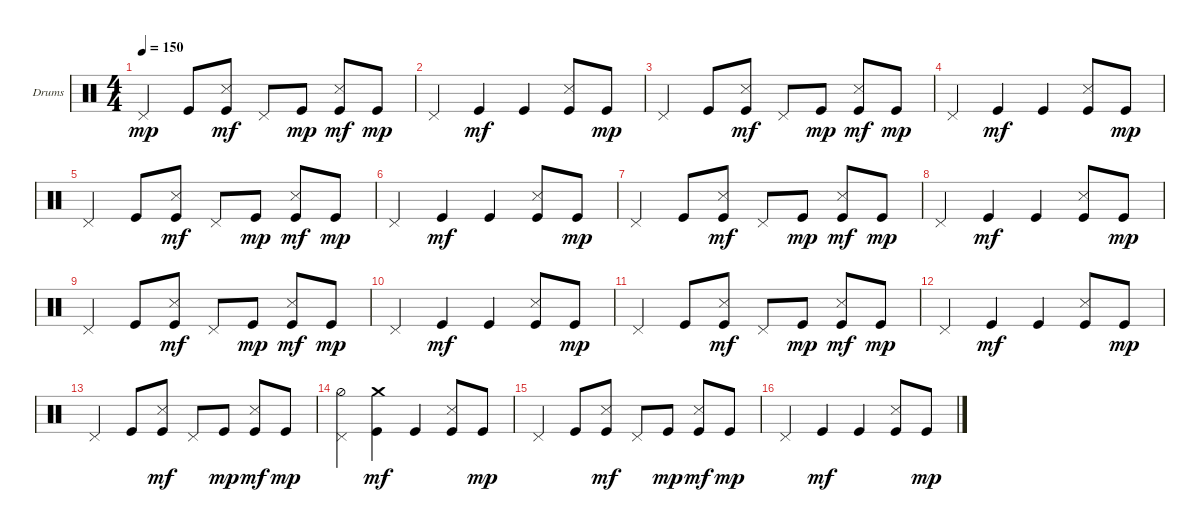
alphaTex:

\defaultSystemsLayout 4
\bracketExtendMode groupsimilarinstruments
\firstSystemTrackNameOrientation horizontal
\otherSystemsTrackNameOrientation horizontal
\track ("Е. Кулаков" "Drums") {instrument percussion}
\staff {score}
\articulation defaults
\ts (4 4)
\tempo 150
\clef neutral
\ks c "Pedal Hi-Hat (hit)".4{dy mp} "Kick (hit)".8
("Kick (hit)" "Snare (side stick) 3").8{dy mf} "Pedal Hi-Hat (hit)".8 "Kick (hit)".8{dy mp} ("Kick (hit)" "Snare (side stick) 3").8{dy mf} "Kick (hit)".8{dy mp} |
"Pedal Hi-Hat (hit)".4 "Kick (hit)".4{dy mf} "Kick (hit)".4 ("Kick (hit)" "Snare (side stick) 3").8 "Kick (hit)".8{dy mp} |
"Pedal Hi-Hat (hit)".4 "Kick (hit)".8 ("Kick (hit)" "Snare (side stick) 3").8{dy mf} "Pedal Hi-Hat (hit)".8 "Kick (hit)".8{dy mp} ("Kick (hit)" "Snare (side stick) 3").8{dy mf} "Kick (hit)".8{dy mp} |
"Pedal Hi-Hat (hit)".4 "Kick (hit)".4{dy mf} "Kick (hit)".4 ("Kick (hit)" "Snare (side stick) 3").8 "Kick (hit)".8{dy mp} |
"Pedal Hi-Hat (hit)".4 "Kick (hit)".8 ("Kick (hit)" "Snare (side stick) 3").8{dy mf} "Pedal Hi-Hat (hit)".8 "Kick (hit)".8{dy mp} ("Kick (hit)" "Snare (side stick) 3").8{dy mf} "Kick (hit)".8{dy mp} |
"Pedal Hi-Hat (hit)".4 "Kick (hit)".4{dy mf} "Kick (hit)".4 ("Kick (hit)" "Snare (side stick) 3").8 "Kick (hit)".8{dy mp} |
"Pedal Hi-Hat (hit)".4 "Kick (hit)".8 ("Kick (hit)" "Snare (side stick) 3").8{dy mf} "Pedal Hi-Hat (hit)".8 "Kick (hit)".8{dy mp} ("Kick (hit)" "Snare (side stick) 3").8{dy mf} "Kick (hit)".8{dy mp} |
"Pedal Hi-Hat (hit)".4 "Kick (hit)".4{dy mf} "Kick (hit)".4 ("Kick (hit)" "Snare (side stick) 3").8 "Kick (hit)".8{dy mp} |
"Pedal Hi-Hat (hit)".4 "Kick (hit)".8 ("Kick (hit)" "Snare (side stick) 3").8{dy mf} "Pedal Hi-Hat (hit)".8 "Kick (hit)".8{dy mp} ("Kick (hit)" "Snare (side stick) 3").8{dy mf} "Kick (hit)".8{dy mp} |
"Pedal Hi-Hat (hit)".4 "Kick (hit)".4{dy mf} "Kick (hit)".4 ("Kick (hit)" "Snare (side stick) 3").8 "Kick (hit)".8{dy mp} |
"Pedal Hi-Hat (hit)".4 "Kick (hit)".8 ("Kick (hit)" "Snare (side stick) 3").8{dy mf} "Pedal Hi-Hat (hit)".8 "Kick (hit)".8{dy mp} ("Kick (hit)" "Snare (side stick) 3").8{dy mf} "Kick (hit)".8{dy mp} |
"Pedal Hi-Hat (hit)".4 "Kick (hit)".4{dy mf} "Kick (hit)".4 ("Kick (hit)" "Snare (side stick) 3").8 "Kick (hit)".8{dy mp} |
"Pedal Hi-Hat (hit)".4 "Kick (hit)".8 ("Kick (hit)" "Snare (side stick) 3").8{dy mf} "Pedal Hi-Hat (hit)".8 "Kick (hit)".8{dy mp} ("Kick (hit)" "Snare (side stick) 3").8{dy mf} "Kick (hit)".8{dy mp} |
("Pedal Hi-Hat (hit)" "Hi-Hat (half)").4 ("Kick (hit)" "Crash medium (hit)").4{dy mf} "Kick (hit)".4 ("Kick (hit)" "Snare (side stick) 3").8 "Kick (hit)".8{dy mp} |
"Pedal Hi-Hat (hit)".4 "Kick (hit)".8 ("Kick (hit)" "Snare (side stick) 3").8{dy mf} "Pedal Hi-Hat (hit)".8 "Kick (hit)".8{dy mp} ("Kick (hit)" "Snare (side stick) 3").8{dy mf} "Kick (hit)".8{dy mp} |
"Pedal Hi-Hat (hit)".4 "Kick (hit)".4{dy mf} "Kick (hit)".4 ("Kick (hit)" "Snare (side stick) 3").8 "Kick (hit)".8{dy mp}
